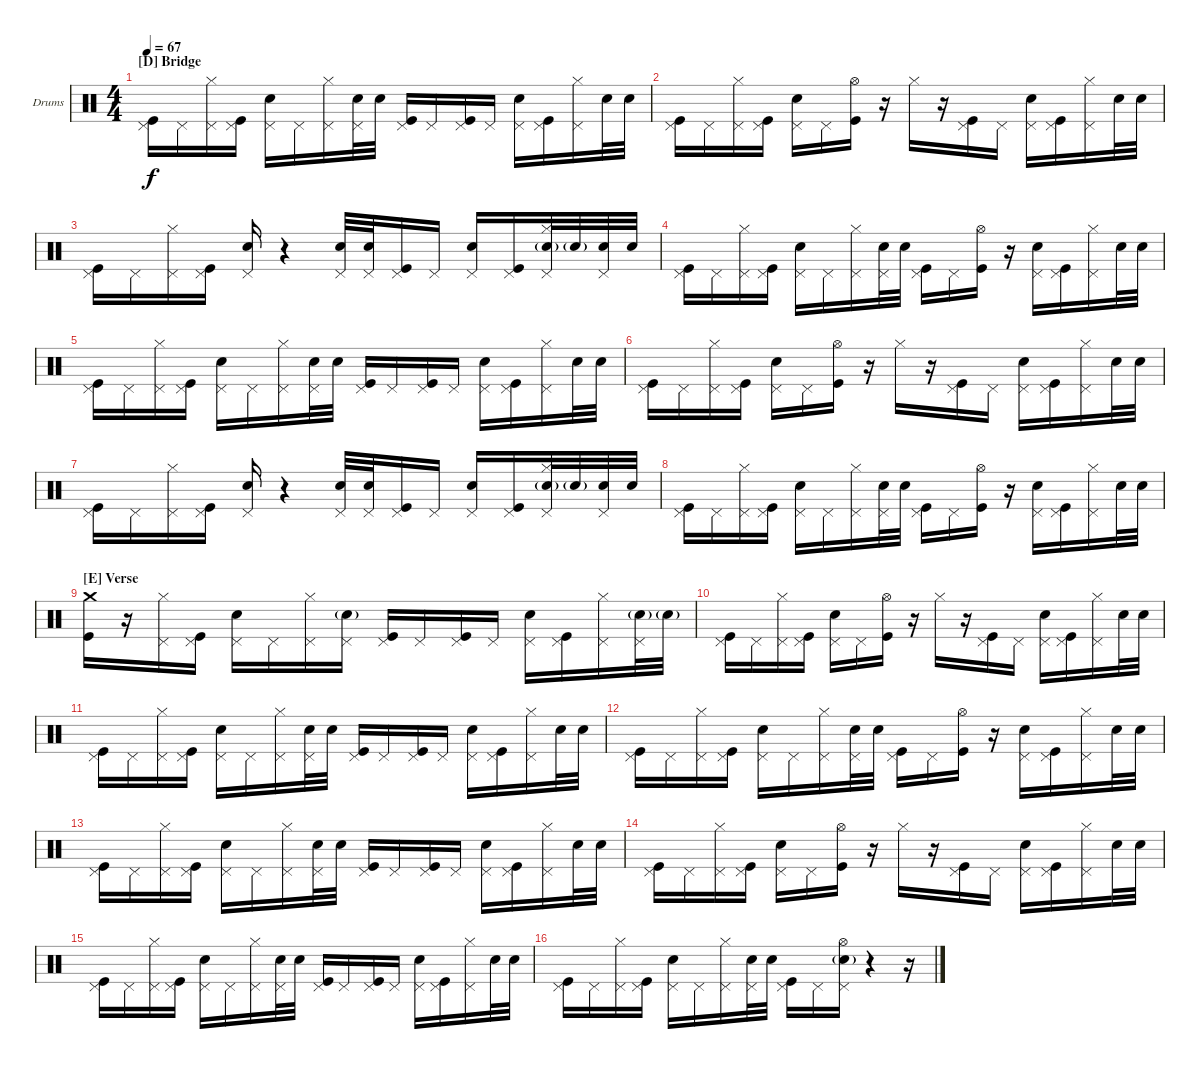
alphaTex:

\defaultSystemsLayout 4
\bracketExtendMode groupsimilarinstruments
\firstSystemTrackNameOrientation horizontal
\otherSystemsTrackNameOrientation horizontal
\track ("Freese" "Drums") {instrument percussion}
\staff {score}
\articulation defaults
\ts (4 4)
\section ("D" "Bridge")
\tempo 67
\clef neutral
\scale
0.333333
\ks c
("Pedal Hi-Hat (hit)" "Kick (hit)").16{dy f} "Pedal Hi-Hat (hit)".16 ("Pedal Hi-Hat (hit)" "Hi-Hat (closed)").16 ("Pedal Hi-Hat (hit)" "Kick (hit)").16 ("Pedal Hi-Hat (hit)" "Snare (hit) 2").16 "Pedal Hi-Hat (hit)".16 ("Pedal Hi-Hat (hit)" "Hi-Hat (closed)").16 ("Pedal Hi-Hat (hit)" "Snare (hit) 2").32 "Snare (hit) 2".32 ("Pedal Hi-Hat (hit)" "Kick (hit)").16 "Pedal Hi-Hat (hit)".16 ("Pedal Hi-Hat (hit)" "Kick (hit)").16 "Pedal Hi-Hat (hit)".16 ("Pedal Hi-Hat (hit)" "Snare (hit) 2").16 ("Pedal Hi-Hat (hit)" "Kick (hit)").16 ("Pedal Hi-Hat (hit)" "Hi-Hat (closed)").16 "Snare (hit) 2".32 "Snare (hit) 2".32 |
\scale
0.333333 ("Pedal Hi-Hat (hit)" "Kick (hit)").16 "Pedal Hi-Hat (hit)".16 ("Pedal Hi-Hat (hit)" "Hi-Hat (closed)").16 ("Pedal Hi-Hat (hit)" "Kick (hit)").16 ("Pedal Hi-Hat (hit)" "Snare (hit) 2").16 "Pedal Hi-Hat (hit)".16 ("Hi-Hat (open)" "Kick (hit)").16 r.16 "Hi-Hat (closed)".16 r.16 ("Pedal Hi-Hat (hit)" "Kick (hit)").16 "Pedal Hi-Hat (hit)".16 ("Pedal Hi-Hat (hit)" "Snare (hit) 2").16 ("Pedal Hi-Hat (hit)" "Kick (hit)").16 ("Pedal Hi-Hat (hit)" "Hi-Hat (closed)").16 "Snare (hit) 2".32 "Snare (hit) 2".32 |
\scale
0.333333 ("Pedal Hi-Hat (hit)" "Kick (hit)").16 "Pedal Hi-Hat (hit)".16 ("Pedal Hi-Hat (hit)" "Hi-Hat (closed)").16 ("Pedal Hi-Hat (hit)" "Kick (hit)").16 ("Pedal Hi-Hat (hit)" "Snare (hit) 2").16 r.4 ("Pedal Hi-Hat (hit)" "Snare (hit) 2").32 ("Pedal Hi-Hat (hit)" "Snare (hit) 2").32 ("Pedal Hi-Hat (hit)" "Kick (hit)").16 "Pedal Hi-Hat (hit)".16 ("Pedal Hi-Hat (hit)" "Snare (hit) 2").16 ("Pedal Hi-Hat (hit)" "Kick (hit)").16 ("Pedal Hi-Hat (hit)" "Snare (hit) 2"{g} "Hi-Hat (closed)").32 "Snare (hit) 2"{g}.32 ("Pedal Hi-Hat (hit)" "Snare (hit) 2").32 "Snare (hit) 2".32 |
\scale
0.333333 ("Pedal Hi-Hat (hit)" "Kick (hit)").16 "Pedal Hi-Hat (hit)".16 ("Pedal Hi-Hat (hit)" "Hi-Hat (closed)").16 ("Pedal Hi-Hat (hit)" "Kick (hit)").16 ("Pedal Hi-Hat (hit)" "Snare (hit) 2").16 "Pedal Hi-Hat (hit)".16 ("Pedal Hi-Hat (hit)" "Hi-Hat (closed)").16 ("Pedal Hi-Hat (hit)" "Snare (hit) 2").32 "Snare (hit) 2".32 ("Pedal Hi-Hat (hit)" "Kick (hit)").16 "Pedal Hi-Hat (hit)".16 ("Kick (hit)" "Hi-Hat (open)").16 r.16 ("Pedal Hi-Hat (hit)" "Snare (hit) 2").16 ("Pedal Hi-Hat (hit)" "Kick (hit)").16 ("Pedal Hi-Hat (hit)" "Hi-Hat (closed)").16 "Snare (hit) 2".32 "Snare (hit) 2".32 |
\scale
0.333333 ("Pedal Hi-Hat (hit)" "Kick (hit)").16 "Pedal Hi-Hat (hit)".16 ("Pedal Hi-Hat (hit)" "Hi-Hat (closed)").16 ("Pedal Hi-Hat (hit)" "Kick (hit)").16 ("Pedal Hi-Hat (hit)" "Snare (hit) 2").16 "Pedal Hi-Hat (hit)".16 ("Pedal Hi-Hat (hit)" "Hi-Hat (closed)").16 ("Pedal Hi-Hat (hit)" "Snare (hit) 2").32 "Snare (hit) 2".32 ("Pedal Hi-Hat (hit)" "Kick (hit)").16 "Pedal Hi-Hat (hit)".16 ("Pedal Hi-Hat (hit)" "Kick (hit)").16 "Pedal Hi-Hat (hit)".16 ("Pedal Hi-Hat (hit)" "Snare (hit) 2").16 ("Pedal Hi-Hat (hit)" "Kick (hit)").16 ("Pedal Hi-Hat (hit)" "Hi-Hat (closed)").16 "Snare (hit) 2".32 "Snare (hit) 2".32 |
\scale
0.333333 ("Pedal Hi-Hat (hit)" "Kick (hit)").16 "Pedal Hi-Hat (hit)".16 ("Pedal Hi-Hat (hit)" "Hi-Hat (closed)").16 ("Pedal Hi-Hat (hit)" "Kick (hit)").16 ("Pedal Hi-Hat (hit)" "Snare (hit) 2").16 "Pedal Hi-Hat (hit)".16 ("Hi-Hat (open)" "Kick (hit)").16 r.16 "Hi-Hat (closed)".16 r.16 ("Pedal Hi-Hat (hit)" "Kick (hit)").16 "Pedal Hi-Hat (hit)".16 ("Pedal Hi-Hat (hit)" "Snare (hit) 2").16 ("Pedal Hi-Hat (hit)" "Kick (hit)").16 ("Pedal Hi-Hat (hit)" "Hi-Hat (closed)").16 "Snare (hit) 2".32 "Snare (hit) 2".32 |
\scale
0.333333 ("Pedal Hi-Hat (hit)" "Kick (hit)").16 "Pedal Hi-Hat (hit)".16 ("Pedal Hi-Hat (hit)" "Hi-Hat (closed)").16 ("Pedal Hi-Hat (hit)" "Kick (hit)").16 ("Pedal Hi-Hat (hit)" "Snare (hit) 2").16 r.4 ("Pedal Hi-Hat (hit)" "Snare (hit) 2").32 ("Pedal Hi-Hat (hit)" "Snare (hit) 2").32 ("Pedal Hi-Hat (hit)" "Kick (hit)").16 "Pedal Hi-Hat (hit)".16 ("Pedal Hi-Hat (hit)" "Snare (hit) 2").16 ("Pedal Hi-Hat (hit)" "Kick (hit)").16 ("Pedal Hi-Hat (hit)" "Snare (hit) 2"{g} "Hi-Hat (closed)").32 "Snare (hit) 2"{g}.32 ("Pedal Hi-Hat (hit)" "Snare (hit) 2").32 "Snare (hit) 2".32 |
\scale
0.333333 ("Pedal Hi-Hat (hit)" "Kick (hit)").16 "Pedal Hi-Hat (hit)".16 ("Pedal Hi-Hat (hit)" "Hi-Hat (closed)").16 ("Pedal Hi-Hat (hit)" "Kick (hit)").16 ("Pedal Hi-Hat (hit)" "Snare (hit) 2").16 "Pedal Hi-Hat (hit)".16 ("Pedal Hi-Hat (hit)" "Hi-Hat (closed)").16 ("Pedal Hi-Hat (hit)" "Snare (hit) 2").32 "Snare (hit) 2".32 ("Pedal Hi-Hat (hit)" "Kick (hit)").16 "Pedal Hi-Hat (hit)".16 ("Kick (hit)" "Hi-Hat (open)").16 r.16 ("Pedal Hi-Hat (hit)" "Snare (hit) 2").16 ("Pedal Hi-Hat (hit)" "Kick (hit)").16 ("Pedal Hi-Hat (hit)" "Hi-Hat (closed)").16 "Snare (hit) 2".32 "Snare (hit) 2".32 |
\section ("E" "Verse")
\scale
0.333333 ("Crash medium (hit)" "Kick (hit)").16 r.16 ("Pedal Hi-Hat (hit)" "Hi-Hat (closed)").16 ("Pedal Hi-Hat (hit)" "Kick (hit)").16 ("Pedal Hi-Hat (hit)" "Snare (hit) 2").16 "Pedal Hi-Hat (hit)".16 ("Pedal Hi-Hat (hit)" "Hi-Hat (closed)").16 ("Pedal Hi-Hat (hit)" "Snare (hit) 2"{g}).16 ("Pedal Hi-Hat (hit)" "Kick (hit)").16 "Pedal Hi-Hat (hit)".16 ("Pedal Hi-Hat (hit)" "Kick (hit)").16 "Pedal Hi-Hat (hit)".16 ("Pedal Hi-Hat (hit)" "Snare (hit) 2").16 ("Pedal Hi-Hat (hit)" "Kick (hit)").16 ("Pedal Hi-Hat (hit)" "Hi-Hat (closed)").16 ("Pedal Hi-Hat (hit)" "Snare (hit) 2"{g}).32 "Snare (hit) 2"{g}.32 |
\scale
0.333333 ("Pedal Hi-Hat (hit)" "Kick (hit)").16 "Pedal Hi-Hat (hit)".16 ("Pedal Hi-Hat (hit)" "Hi-Hat (closed)").16 ("Pedal Hi-Hat (hit)" "Kick (hit)").16 ("Pedal Hi-Hat (hit)" "Snare (hit) 2").16 "Pedal Hi-Hat (hit)".16 ("Hi-Hat (open)" "Kick (hit)").16 r.16 "Hi-Hat (closed)".16 r.16 ("Pedal Hi-Hat (hit)" "Kick (hit)").16 "Pedal Hi-Hat (hit)".16 ("Pedal Hi-Hat (hit)" "Snare (hit) 2").16 ("Pedal Hi-Hat (hit)" "Kick (hit)").16 ("Pedal Hi-Hat (hit)" "Hi-Hat (closed)").16 "Snare (hit) 2".32 "Snare (hit) 2".32 |
\scale
0.333333 ("Pedal Hi-Hat (hit)" "Kick (hit)").16 "Pedal Hi-Hat (hit)".16 ("Pedal Hi-Hat (hit)" "Hi-Hat (closed)").16 ("Pedal Hi-Hat (hit)" "Kick (hit)").16 ("Pedal Hi-Hat (hit)" "Snare (hit) 2").16 "Pedal Hi-Hat (hit)".16 ("Pedal Hi-Hat (hit)" "Hi-Hat (closed)").16 ("Pedal Hi-Hat (hit)" "Snare (hit) 2").32 "Snare (hit) 2".32 ("Pedal Hi-Hat (hit)" "Kick (hit)").16 "Pedal Hi-Hat (hit)".16 ("Pedal Hi-Hat (hit)" "Kick (hit)").16 "Pedal Hi-Hat (hit)".16 ("Pedal Hi-Hat (hit)" "Snare (hit) 2").16 ("Pedal Hi-Hat (hit)" "Kick (hit)").16 ("Pedal Hi-Hat (hit)" "Hi-Hat (closed)").16 "Snare (hit) 2".32 "Snare (hit) 2".32 |
\scale
0.333333 ("Pedal Hi-Hat (hit)" "Kick (hit)").16 "Pedal Hi-Hat (hit)".16 ("Pedal Hi-Hat (hit)" "Hi-Hat (closed)").16 ("Pedal Hi-Hat (hit)" "Kick (hit)").16 ("Pedal Hi-Hat (hit)" "Snare (hit) 2").16 "Pedal Hi-Hat (hit)".16 ("Pedal Hi-Hat (hit)" "Hi-Hat (closed)").16 ("Pedal Hi-Hat (hit)" "Snare (hit) 2").32 "Snare (hit) 2".32 ("Pedal Hi-Hat (hit)" "Kick (hit)").16 "Pedal Hi-Hat (hit)".16 ("Kick (hit)" "Hi-Hat (open)").16 r.16 ("Pedal Hi-Hat (hit)" "Snare (hit) 2").16 ("Pedal Hi-Hat (hit)" "Kick (hit)").16 ("Pedal Hi-Hat (hit)" "Hi-Hat (closed)").16 "Snare (hit) 2".32 "Snare (hit) 2".32 |
\scale
0.333333 ("Pedal Hi-Hat (hit)" "Kick (hit)").16 "Pedal Hi-Hat (hit)".16 ("Pedal Hi-Hat (hit)" "Hi-Hat (closed)").16 ("Pedal Hi-Hat (hit)" "Kick (hit)").16 ("Pedal Hi-Hat (hit)" "Snare (hit) 2").16 "Pedal Hi-Hat (hit)".16 ("Pedal Hi-Hat (hit)" "Hi-Hat (closed)").16 ("Pedal Hi-Hat (hit)" "Snare (hit) 2").32 "Snare (hit) 2".32 ("Pedal Hi-Hat (hit)" "Kick (hit)").16 "Pedal Hi-Hat (hit)".16 ("Pedal Hi-Hat (hit)" "Kick (hit)").16 "Pedal Hi-Hat (hit)".16 ("Pedal Hi-Hat (hit)" "Snare (hit) 2").16 ("Pedal Hi-Hat (hit)" "Kick (hit)").16 ("Pedal Hi-Hat (hit)" "Hi-Hat (closed)").16 "Snare (hit) 2".32 "Snare (hit) 2".32 |
\scale
0.333333 ("Pedal Hi-Hat (hit)" "Kick (hit)").16 "Pedal Hi-Hat (hit)".16 ("Pedal Hi-Hat (hit)" "Hi-Hat (closed)").16 ("Pedal Hi-Hat (hit)" "Kick (hit)").16 ("Pedal Hi-Hat (hit)" "Snare (hit) 2").16 "Pedal Hi-Hat (hit)".16 ("Hi-Hat (open)" "Kick (hit)").16 r.16 "Hi-Hat (closed)".16 r.16 ("Pedal Hi-Hat (hit)" "Kick (hit)").16 "Pedal Hi-Hat (hit)".16 ("Pedal Hi-Hat (hit)" "Snare (hit) 2").16 ("Pedal Hi-Hat (hit)" "Kick (hit)").16 ("Pedal Hi-Hat (hit)" "Hi-Hat (closed)").16 "Snare (hit) 2".32 "Snare (hit) 2".32 |
\scale
0.333333 ("Pedal Hi-Hat (hit)" "Kick (hit)").16 "Pedal Hi-Hat (hit)".16 ("Pedal Hi-Hat (hit)" "Hi-Hat (closed)").16 ("Pedal Hi-Hat (hit)" "Kick (hit)").16 ("Pedal Hi-Hat (hit)" "Snare (hit) 2").16 "Pedal Hi-Hat (hit)".16 ("Pedal Hi-Hat (hit)" "Hi-Hat (closed)").16 ("Pedal Hi-Hat (hit)" "Snare (hit) 2").32 "Snare (hit) 2".32 ("Pedal Hi-Hat (hit)" "Kick (hit)").16 "Pedal Hi-Hat (hit)".16 ("Pedal Hi-Hat (hit)" "Kick (hit)").16 "Pedal Hi-Hat (hit)".16 ("Pedal Hi-Hat (hit)" "Snare (hit) 2").16 ("Pedal Hi-Hat (hit)" "Kick (hit)").16 ("Pedal Hi-Hat (hit)" "Hi-Hat (closed)").16 "Snare (hit) 2".32 "Snare (hit) 2".32 |
\scale
0.333333 ("Pedal Hi-Hat (hit)" "Kick (hit)").16 "Pedal Hi-Hat (hit)".16 ("Pedal Hi-Hat (hit)" "Hi-Hat (closed)").16 ("Pedal Hi-Hat (hit)" "Kick (hit)").16 ("Pedal Hi-Hat (hit)" "Snare (hit) 2").16 "Pedal Hi-Hat (hit)".16 ("Pedal Hi-Hat (hit)" "Hi-Hat (closed)").16 ("Pedal Hi-Hat (hit)" "Snare (hit) 2").32 "Snare (hit) 2".32 ("Pedal Hi-Hat (hit)" "Kick (hit)").16 "Pedal Hi-Hat (hit)".16 ("Pedal Hi-Hat (hit)" "Snare (hit) 2"{g} "Hi-Hat (open)").16 r.4 r.16
